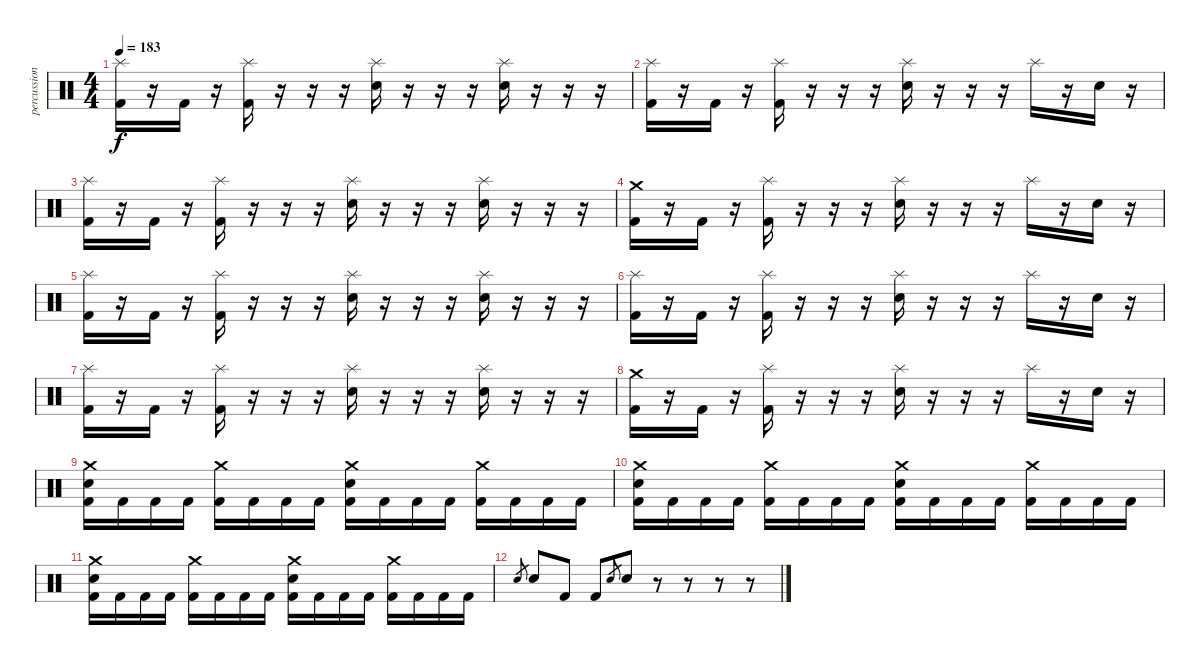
\track ("percussion" "percussion") {instrument percussion}
\staff {score}
\articulation defaults
\ts (4 4)
\tempo 183
\clef neutral
\ks c
("Splash (hit)" "Kick (hit) 2").16{dy f} r.16 "Kick (hit) 2".16 r.16 ("Splash (hit)" "Kick (hit) 2").16 r.16 r.16 r.16 ("Splash (hit)" "Electric Snare (hit)").16 r.16 r.16 r.16 ("Splash (hit)" "Electric Snare (hit)").16 r.16 r.16 r.16 |
("Splash (hit)" "Kick (hit) 2").16 r.16 "Kick (hit) 2".16 r.16 ("Splash (hit)" "Kick (hit) 2").16 r.16 r.16 r.16 ("Splash (hit)" "Electric Snare (hit)").16 r.16 r.16 r.16 "Splash (hit)".16 r.16 "Electric Snare (hit)".16 r.16 |
("Splash (hit)" "Kick (hit) 2").16 r.16 "Kick (hit) 2".16 r.16 ("Splash (hit)" "Kick (hit) 2").16 r.16 r.16 r.16 ("Splash (hit)" "Electric Snare (hit)").16 r.16 r.16 r.16 ("Splash (hit)" "Electric Snare (hit)").16 r.16 r.16 r.16 |
("Crash medium (hit)" "Kick (hit) 2").16 r.16 "Kick (hit) 2".16 r.16 ("Splash (hit)" "Kick (hit) 2").16 r.16 r.16 r.16 ("Splash (hit)" "Electric Snare (hit)").16 r.16 r.16 r.16 "Splash (hit)".16 r.16 "Electric Snare (hit)".16 r.16 |
("Splash (hit)" "Kick (hit) 2").16 r.16 "Kick (hit) 2".16 r.16 ("Splash (hit)" "Kick (hit) 2").16 r.16 r.16 r.16 ("Splash (hit)" "Electric Snare (hit)").16 r.16 r.16 r.16 ("Splash (hit)" "Electric Snare (hit)").16 r.16 r.16 r.16 |
("Splash (hit)" "Kick (hit) 2").16 r.16 "Kick (hit) 2".16 r.16 ("Splash (hit)" "Kick (hit) 2").16 r.16 r.16 r.16 ("Splash (hit)" "Electric Snare (hit)").16 r.16 r.16 r.16 "Splash (hit)".16 r.16 "Electric Snare (hit)".16 r.16 |
("Splash (hit)" "Kick (hit) 2").16 r.16 "Kick (hit) 2".16 r.16 ("Splash (hit)" "Kick (hit) 2").16 r.16 r.16 r.16 ("Splash (hit)" "Electric Snare (hit)").16 r.16 r.16 r.16 ("Splash (hit)" "Electric Snare (hit)").16 r.16 r.16 r.16 |
("Crash medium (hit)" "Kick (hit) 2").16 r.16 "Kick (hit) 2".16 r.16 ("Splash (hit)" "Kick (hit) 2").16 r.16 r.16 r.16 ("Splash (hit)" "Electric Snare (hit)").16 r.16 r.16 r.16 "Splash (hit)".16 r.16 "Electric Snare (hit)".16 r.16 |
("Crash medium (hit)" "Electric Snare (hit)" "Kick (hit) 2").16 "Kick (hit) 2".16 "Kick (hit) 2".16 "Kick (hit) 2".16 ("Crash medium (hit)" "Kick (hit) 2").16 "Kick (hit) 2".16 "Kick (hit) 2".16 "Kick (hit) 2".16 ("Crash medium (hit)" "Electric Snare (hit)" "Kick (hit) 2").16 "Kick (hit) 2".16 "Kick (hit) 2".16 "Kick (hit) 2".16 ("Crash medium (hit)" "Kick (hit) 2").16 "Kick (hit) 2".16 "Kick (hit) 2".16 "Kick (hit) 2".16 |
("Crash medium (hit)" "Electric Snare (hit)" "Kick (hit) 2").16 "Kick (hit) 2".16 "Kick (hit) 2".16 "Kick (hit) 2".16 ("Crash medium (hit)" "Kick (hit) 2").16 "Kick (hit) 2".16 "Kick (hit) 2".16 "Kick (hit) 2".16 ("Crash medium (hit)" "Electric Snare (hit)" "Kick (hit) 2").16 "Kick (hit) 2".16 "Kick (hit) 2".16 "Kick (hit) 2".16 ("Crash medium (hit)" "Kick (hit) 2").16 "Kick (hit) 2".16 "Kick (hit) 2".16 "Kick (hit) 2".16 |
("Crash medium (hit)" "Electric Snare (hit)" "Kick (hit) 2").16 "Kick (hit) 2".16 "Kick (hit) 2".16 "Kick (hit) 2".16 ("Crash medium (hit)" "Kick (hit) 2").16 "Kick (hit) 2".16 "Kick (hit) 2".16 "Kick (hit) 2".16 ("Crash medium (hit)" "Electric Snare (hit)" "Kick (hit) 2").16 "Kick (hit) 2".16 "Kick (hit) 2".16 "Kick (hit) 2".16 ("Crash medium (hit)" "Kick (hit) 2").16 "Kick (hit) 2".16 "Kick (hit) 2".16 "Kick (hit) 2".16 |
"Electric Snare (hit)".8{gr} "Electric Snare (hit)".8 "Kick (hit) 2".8 "Kick (hit) 2".8 "Electric Snare (hit)".8{gr} "Electric Snare (hit)".8 r.8 r.8 r.8 r.8
